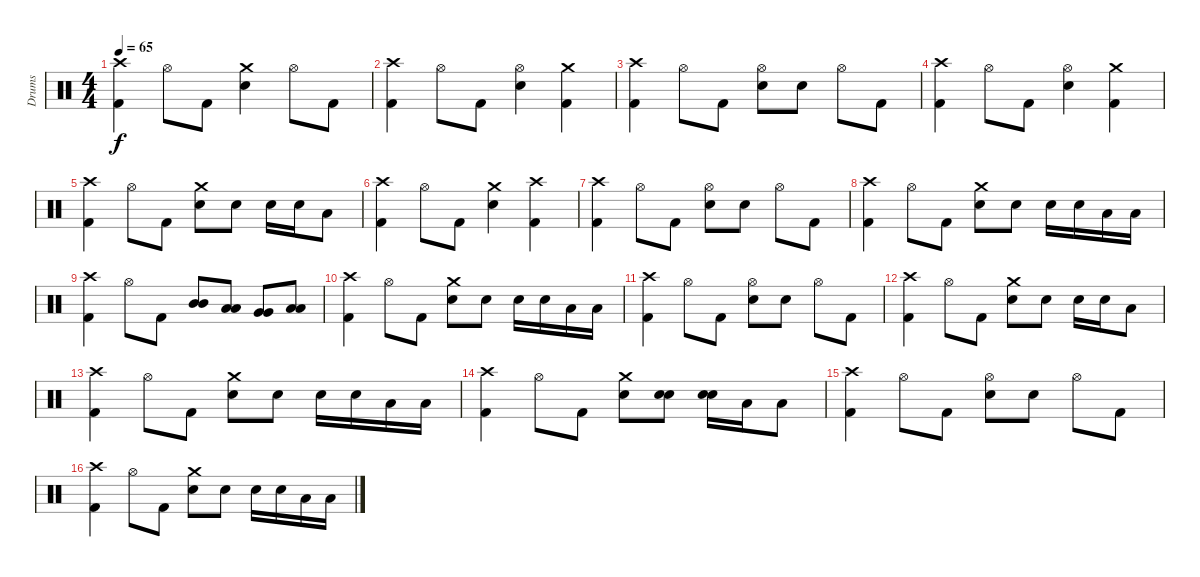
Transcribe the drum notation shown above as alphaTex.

\track ("Drums" "Drums") {instrument percussion}
\staff {score}
\articulation defaults
\ts (4 4)
\tempo 65
\clef neutral
\ks c
("Crash high (hit)" "Kick (hit) 2").4{dy f} "Hi-Hat (open)".8 "Kick (hit) 2".8 ("Crash medium (hit)" "Electric Snare (hit)").4 "Hi-Hat (open)".8 "Kick (hit) 2".8 |
("Crash high (hit)" "Kick (hit) 2").4 "Hi-Hat (open)".8 "Kick (hit) 2".8 ("Hi-Hat (open)" "Electric Snare (hit)").4 ("Crash medium (hit)" "Kick (hit) 2").4 |
("Crash high (hit)" "Kick (hit) 2").4 "Hi-Hat (open)".8 "Kick (hit) 2".8 ("Hi-Hat (open)" "Electric Snare (hit)").8 "Electric Snare (hit)".8 "Hi-Hat (open)".8 "Kick (hit) 2".8 |
("Crash high (hit)" "Kick (hit) 2").4 "Hi-Hat (open)".8 "Kick (hit) 2".8 ("Hi-Hat (open)" "Electric Snare (hit)").4 ("Crash medium (hit)" "Kick (hit) 2").4 |
("Crash high (hit)" "Kick (hit) 2").4 "Hi-Hat (open)".8 "Kick (hit) 2".8 ("Crash medium (hit)" "Electric Snare (hit)").8 "Electric Snare (hit)".8 "Electric Snare (hit)".16 "Electric Snare (hit)".16 "Low Tom (hit)".8 |
("Crash high (hit)" "Kick (hit) 2").4 "Hi-Hat (open)".8 "Kick (hit) 2".8 ("Crash medium (hit)" "Electric Snare (hit)").4 ("Crash high (hit)" "Kick (hit) 2").4 |
("Crash high (hit)" "Kick (hit) 2").4 "Hi-Hat (open)".8 "Kick (hit) 2".8 ("Hi-Hat (open)" "Electric Snare (hit)").8 "Electric Snare (hit)".8 "Hi-Hat (open)".8 "Kick (hit) 2".8 |
("Crash high (hit)" "Kick (hit) 2").4 "Hi-Hat (open)".8 "Kick (hit) 2".8 ("Crash medium (hit)" "Electric Snare (hit)").8 "Electric Snare (hit)".8 "Electric Snare (hit)".16 "Electric Snare (hit)".16 "Low Tom (hit)".16 "Low Tom (hit)".16 |
("Crash high (hit)" "Kick (hit) 2").4 "Hi-Hat (open)".8 "Kick (hit) 2".8 ("Mid Tom (hit)" "Mid Tom (hit)").8{bu 60} ("Low Tom (hit)" "Low Tom (hit)").8{bu 60} ("Very Low Tom (hit)" "Very Low Tom (hit)").8{bu 60} ("Low Floor Tom (hit)" "Low Floor Tom (hit)").8{bu 60} |
("Crash high (hit)" "Kick (hit) 2").4 "Hi-Hat (open)".8 "Kick (hit) 2".8 ("Crash medium (hit)" "Electric Snare (hit)").8 "Electric Snare (hit)".8 "Electric Snare (hit)".16 "Electric Snare (hit)".16 "Low Tom (hit)".16 "Low Tom (hit)".16 |
("Crash high (hit)" "Kick (hit) 2").4 "Hi-Hat (open)".8 "Kick (hit) 2".8 ("Hi-Hat (open)" "Electric Snare (hit)").8 "Electric Snare (hit)".8 "Hi-Hat (open)".8 "Kick (hit) 2".8 |
("Crash high (hit)" "Kick (hit) 2").4 "Hi-Hat (open)".8 "Kick (hit) 2".8 ("Crash medium (hit)" "Electric Snare (hit)").8 "Electric Snare (hit)".8 "Electric Snare (hit)".16 "Electric Snare (hit)".16 "Low Tom (hit)".8 |
("Crash high (hit)" "Kick (hit) 2").4 "Hi-Hat (open)".8 "Kick (hit) 2".8 ("Crash medium (hit)" "Electric Snare (hit)").8 "Electric Snare (hit)".8 "Electric Snare (hit)".16 "Electric Snare (hit)".16 "Low Tom (hit)".16 "Low Tom (hit)".16 |
("Crash high (hit)" "Kick (hit) 2").4 "Hi-Hat (open)".8 "Kick (hit) 2".8 ("Crash medium (hit)" "Electric Snare (hit)").8 ("Electric Snare (hit)" "Electric Snare (hit)").8{bu 60} ("Electric Snare (hit)" "Electric Snare (hit)").16{bu 60} "Low Tom (hit)".16 "Low Tom (hit)".8 |
("Crash high (hit)" "Kick (hit) 2").4 "Hi-Hat (open)".8 "Kick (hit) 2".8 ("Hi-Hat (open)" "Electric Snare (hit)").8 "Electric Snare (hit)".8 "Hi-Hat (open)".8 "Kick (hit) 2".8 |
("Crash high (hit)" "Kick (hit) 2").4 "Hi-Hat (open)".8 "Kick (hit) 2".8 ("Crash medium (hit)" "Electric Snare (hit)").8 "Electric Snare (hit)".8 "Electric Snare (hit)".16 "Electric Snare (hit)".16 "Low Tom (hit)".16 "Low Tom (hit)".16
